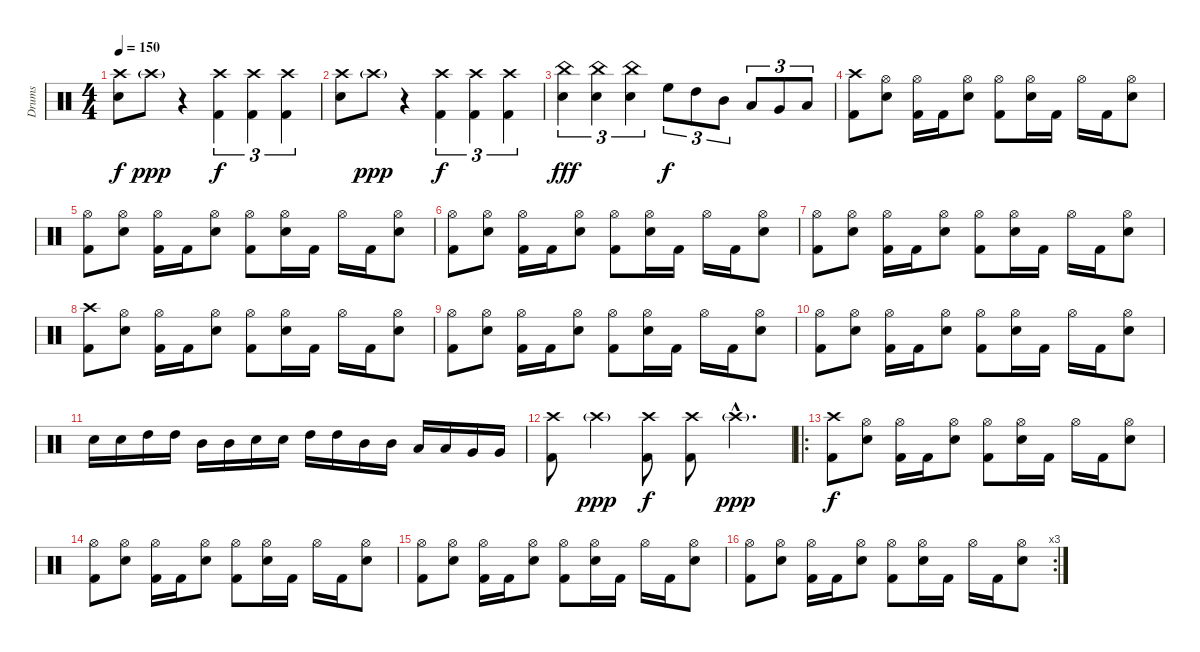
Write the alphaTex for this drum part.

\track ("Drums" "Drums") {instrument percussion}
\staff {score}
\articulation defaults
\ts (4 4)
\tempo 150
\clef neutral
\ks c
("Crash high (hit)" "Electric Snare (hit)").8{dy f} "Crash high (hit)"{g}.8{dy ppp} r.4 ("Crash high (hit)" "Kick (hit) 2").4{tu (3 2) dy f} ("Crash high (hit)" "Kick (hit) 2").4{tu (3 2)} ("Crash high (hit)" "Kick (hit) 2").4{tu (3 2)} |
("Crash high (hit)" "Electric Snare (hit)").8 "Crash high (hit)"{g}.8{dy ppp} r.4 ("Crash high (hit)" "Kick (hit) 2").4{tu (3 2) dy f} ("Crash high (hit)" "Kick (hit) 2").4{tu (3 2)} ("Crash high (hit)" "Kick (hit) 2").4{tu (3 2)} |
("China (hit)" "Electric Snare (hit)").4{tu (3 2) dy fff} ("China (hit)" "Electric Snare (hit)").4{tu (3 2)} ("China (hit)" "Electric Snare (hit)").4{tu (3 2)} "High Floor Tom (hit)".8{tu (3 2) dy f} "High Tom (hit)".8{tu (3 2)} "Mid Tom (hit)".8{tu (3 2)} "Low Tom (hit)".8{tu (3 2)} "Very Low Tom (hit)".8{tu (3 2)} "Low Floor Tom (hit)".8{tu (3 2)} |
("Crash high (hit)" "Kick (hit) 2").8 ("Hi-Hat (open)" "Electric Snare (hit)").8 ("Hi-Hat (open)" "Kick (hit) 2").16 "Kick (hit) 2".16 ("Hi-Hat (open)" "Electric Snare (hit)").8 ("Hi-Hat (open)" "Kick (hit) 2").8 ("Hi-Hat (open)" "Electric Snare (hit)").16 "Kick (hit) 2".16 "Hi-Hat (open)".16 "Kick (hit) 2".16 ("Hi-Hat (open)" "Electric Snare (hit)").8 |
("Hi-Hat (open)" "Kick (hit) 2").8 ("Hi-Hat (open)" "Electric Snare (hit)").8 ("Hi-Hat (open)" "Kick (hit) 2").16 "Kick (hit) 2".16 ("Hi-Hat (open)" "Electric Snare (hit)").8 ("Hi-Hat (open)" "Kick (hit) 2").8 ("Hi-Hat (open)" "Electric Snare (hit)").16 "Kick (hit) 2".16 "Hi-Hat (open)".16 "Kick (hit) 2".16 ("Hi-Hat (open)" "Electric Snare (hit)").8 |
("Hi-Hat (open)" "Kick (hit) 2").8 ("Hi-Hat (open)" "Electric Snare (hit)").8 ("Hi-Hat (open)" "Kick (hit) 2").16 "Kick (hit) 2".16 ("Hi-Hat (open)" "Electric Snare (hit)").8 ("Hi-Hat (open)" "Kick (hit) 2").8 ("Hi-Hat (open)" "Electric Snare (hit)").16 "Kick (hit) 2".16 "Hi-Hat (open)".16 "Kick (hit) 2".16 ("Hi-Hat (open)" "Electric Snare (hit)").8 |
("Hi-Hat (open)" "Kick (hit) 2").8 ("Hi-Hat (open)" "Electric Snare (hit)").8 ("Hi-Hat (open)" "Kick (hit) 2").16 "Kick (hit) 2".16 ("Hi-Hat (open)" "Electric Snare (hit)").8 ("Hi-Hat (open)" "Kick (hit) 2").8 ("Hi-Hat (open)" "Electric Snare (hit)").16 "Kick (hit) 2".16 "Hi-Hat (open)".16 "Kick (hit) 2".16 ("Hi-Hat (open)" "Electric Snare (hit)").8 |
("Crash high (hit)" "Kick (hit) 2").8 ("Hi-Hat (open)" "Electric Snare (hit)").8 ("Hi-Hat (open)" "Kick (hit) 2").16 "Kick (hit) 2".16 ("Hi-Hat (open)" "Electric Snare (hit)").8 ("Hi-Hat (open)" "Kick (hit) 2").8 ("Hi-Hat (open)" "Electric Snare (hit)").16 "Kick (hit) 2".16 "Hi-Hat (open)".16 "Kick (hit) 2".16 ("Hi-Hat (open)" "Electric Snare (hit)").8 |
("Hi-Hat (open)" "Kick (hit) 2").8 ("Hi-Hat (open)" "Electric Snare (hit)").8 ("Hi-Hat (open)" "Kick (hit) 2").16 "Kick (hit) 2".16 ("Hi-Hat (open)" "Electric Snare (hit)").8 ("Hi-Hat (open)" "Kick (hit) 2").8 ("Hi-Hat (open)" "Electric Snare (hit)").16 "Kick (hit) 2".16 "Hi-Hat (open)".16 "Kick (hit) 2".16 ("Hi-Hat (open)" "Electric Snare (hit)").8 |
("Hi-Hat (open)" "Kick (hit) 2").8 ("Hi-Hat (open)" "Electric Snare (hit)").8 ("Hi-Hat (open)" "Kick (hit) 2").16 "Kick (hit) 2".16 ("Hi-Hat (open)" "Electric Snare (hit)").8 ("Hi-Hat (open)" "Kick (hit) 2").8 ("Hi-Hat (open)" "Electric Snare (hit)").16 "Kick (hit) 2".16 "Hi-Hat (open)".16 "Kick (hit) 2".16 ("Hi-Hat (open)" "Electric Snare (hit)").8 |
"Electric Snare (hit)".16 "Electric Snare (hit)".16 "High Tom (hit)".16 "High Tom (hit)".16 "Mid Tom (hit)".16 "Mid Tom (hit)".16 "Electric Snare (hit)".16 "Electric Snare (hit)".16 "High Tom (hit)".16 "High Tom (hit)".16 "Mid Tom (hit)".16 "Mid Tom (hit)".16 "Low Tom (hit)".16 "Low Tom (hit)".16 "Very Low Tom (hit)".16 "Very Low Tom (hit)".16 |
("Crash high (hit)" "Kick (hit) 2").8 "Crash high (hit)"{g}.4{dy ppp} ("Crash high (hit)" "Kick (hit) 2").8{dy f} ("Crash high (hit)" "Kick (hit) 2").8 "Crash high (hit)"{g hac}.4{d dy ppp} |
\ro
("Crash high (hit)" "Kick (hit) 2").8{dy f} ("Hi-Hat (open)" "Electric Snare (hit)").8 ("Hi-Hat (open)" "Kick (hit) 2").16 "Kick (hit) 2".16 ("Hi-Hat (open)" "Electric Snare (hit)").8 ("Hi-Hat (open)" "Kick (hit) 2").8 ("Hi-Hat (open)" "Electric Snare (hit)").16 "Kick (hit) 2".16 "Hi-Hat (open)".16 "Kick (hit) 2".16 ("Hi-Hat (open)" "Electric Snare (hit)").8 |
("Hi-Hat (open)" "Kick (hit) 2").8 ("Hi-Hat (open)" "Electric Snare (hit)").8 ("Hi-Hat (open)" "Kick (hit) 2").16 "Kick (hit) 2".16 ("Hi-Hat (open)" "Electric Snare (hit)").8 ("Hi-Hat (open)" "Kick (hit) 2").8 ("Hi-Hat (open)" "Electric Snare (hit)").16 "Kick (hit) 2".16 "Hi-Hat (open)".16 "Kick (hit) 2".16 ("Hi-Hat (open)" "Electric Snare (hit)").8 |
("Hi-Hat (open)" "Kick (hit) 2").8 ("Hi-Hat (open)" "Electric Snare (hit)").8 ("Hi-Hat (open)" "Kick (hit) 2").16 "Kick (hit) 2".16 ("Hi-Hat (open)" "Electric Snare (hit)").8 ("Hi-Hat (open)" "Kick (hit) 2").8 ("Hi-Hat (open)" "Electric Snare (hit)").16 "Kick (hit) 2".16 "Hi-Hat (open)".16 "Kick (hit) 2".16 ("Hi-Hat (open)" "Electric Snare (hit)").8 |
\rc 3
("Hi-Hat (open)" "Kick (hit) 2").8 ("Hi-Hat (open)" "Electric Snare (hit)").8 ("Hi-Hat (open)" "Kick (hit) 2").16 "Kick (hit) 2".16 ("Hi-Hat (open)" "Electric Snare (hit)").8 ("Hi-Hat (open)" "Kick (hit) 2").8 ("Hi-Hat (open)" "Electric Snare (hit)").16 "Kick (hit) 2".16 "Hi-Hat (open)".16 "Kick (hit) 2".16 ("Hi-Hat (open)" "Electric Snare (hit)").8
